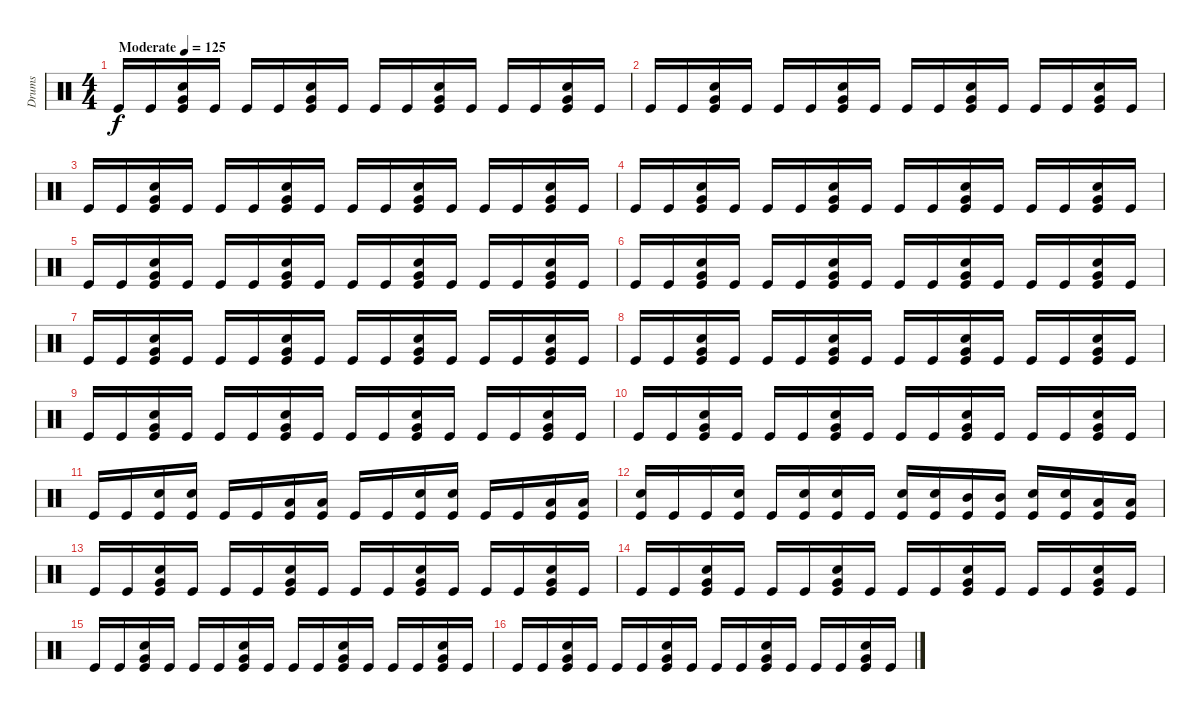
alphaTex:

\track ("Drums" "Drums") {instrument percussion}
\staff {score}
\articulation defaults
\ts (4 4)
\tempo (125 "Moderate")
\clef neutral
\ks c "Kick (hit)".16{dy f volume 7 balance 16} "Kick (hit)".16
("Very Low Tom (hit)" "Electric Snare (hit)" "Kick (hit)").16 "Kick (hit)".16 "Kick (hit)".16 "Kick (hit)".16 ("Very Low Tom (hit)" "Electric Snare (hit)" "Kick (hit)").16 "Kick (hit)".16 "Kick (hit)".16 "Kick (hit)".16 ("Very Low Tom (hit)" "Electric Snare (hit)" "Kick (hit)").16 "Kick (hit)".16 "Kick (hit)".16 "Kick (hit)".16 ("Very Low Tom (hit)" "Electric Snare (hit)" "Kick (hit)").16 "Kick (hit)".16 |
"Kick (hit)".16 "Kick (hit)".16 ("Very Low Tom (hit)" "Electric Snare (hit)" "Kick (hit)").16 "Kick (hit)".16 "Kick (hit)".16 "Kick (hit)".16 ("Very Low Tom (hit)" "Electric Snare (hit)" "Kick (hit)").16 "Kick (hit)".16 "Kick (hit)".16 "Kick (hit)".16 ("Very Low Tom (hit)" "Electric Snare (hit)" "Kick (hit)").16 "Kick (hit)".16 "Kick (hit)".16 "Kick (hit)".16 ("Very Low Tom (hit)" "Electric Snare (hit)" "Kick (hit)").16 "Kick (hit)".16 |
"Kick (hit)".16{volume 13 balance 8} "Kick (hit)".16 ("Very Low Tom (hit)" "Electric Snare (hit)" "Kick (hit)").16 "Kick (hit)".16 "Kick (hit)".16 "Kick (hit)".16 ("Very Low Tom (hit)" "Electric Snare (hit)" "Kick (hit)").16 "Kick (hit)".16 "Kick (hit)".16 "Kick (hit)".16 ("Very Low Tom (hit)" "Electric Snare (hit)" "Kick (hit)").16 "Kick (hit)".16 "Kick (hit)".16 "Kick (hit)".16 ("Very Low Tom (hit)" "Electric Snare (hit)" "Kick (hit)").16 "Kick (hit)".16 |
"Kick (hit)".16 "Kick (hit)".16 ("Very Low Tom (hit)" "Electric Snare (hit)" "Kick (hit)").16 "Kick (hit)".16 "Kick (hit)".16 "Kick (hit)".16 ("Very Low Tom (hit)" "Electric Snare (hit)" "Kick (hit)").16 "Kick (hit)".16 "Kick (hit)".16 "Kick (hit)".16 ("Very Low Tom (hit)" "Electric Snare (hit)" "Kick (hit)").16 "Kick (hit)".16 "Kick (hit)".16 "Kick (hit)".16 ("Very Low Tom (hit)" "Electric Snare (hit)" "Kick (hit)").16 "Kick (hit)".16 |
"Kick (hit)".16 "Kick (hit)".16 ("Very Low Tom (hit)" "Electric Snare (hit)" "Kick (hit)").16 "Kick (hit)".16 "Kick (hit)".16 "Kick (hit)".16 ("Very Low Tom (hit)" "Electric Snare (hit)" "Kick (hit)").16 "Kick (hit)".16 "Kick (hit)".16 "Kick (hit)".16 ("Very Low Tom (hit)" "Electric Snare (hit)" "Kick (hit)").16 "Kick (hit)".16 "Kick (hit)".16 "Kick (hit)".16 ("Very Low Tom (hit)" "Electric Snare (hit)" "Kick (hit)").16 "Kick (hit)".16 |
"Kick (hit)".16 "Kick (hit)".16 ("Very Low Tom (hit)" "Electric Snare (hit)" "Kick (hit)").16 "Kick (hit)".16 "Kick (hit)".16 "Kick (hit)".16 ("Very Low Tom (hit)" "Electric Snare (hit)" "Kick (hit)").16 "Kick (hit)".16 "Kick (hit)".16 "Kick (hit)".16 ("Very Low Tom (hit)" "Electric Snare (hit)" "Kick (hit)").16 "Kick (hit)".16 "Kick (hit)".16 "Kick (hit)".16 ("Very Low Tom (hit)" "Electric Snare (hit)" "Kick (hit)").16 "Kick (hit)".16 |
"Kick (hit)".16 "Kick (hit)".16 ("Very Low Tom (hit)" "Electric Snare (hit)" "Kick (hit)").16 "Kick (hit)".16 "Kick (hit)".16 "Kick (hit)".16 ("Very Low Tom (hit)" "Electric Snare (hit)" "Kick (hit)").16 "Kick (hit)".16 "Kick (hit)".16 "Kick (hit)".16 ("Very Low Tom (hit)" "Electric Snare (hit)" "Kick (hit)").16 "Kick (hit)".16 "Kick (hit)".16 "Kick (hit)".16 ("Very Low Tom (hit)" "Electric Snare (hit)" "Kick (hit)").16 "Kick (hit)".16 |
"Kick (hit)".16 "Kick (hit)".16 ("Very Low Tom (hit)" "Electric Snare (hit)" "Kick (hit)").16 "Kick (hit)".16 "Kick (hit)".16 "Kick (hit)".16 ("Very Low Tom (hit)" "Electric Snare (hit)" "Kick (hit)").16 "Kick (hit)".16 "Kick (hit)".16 "Kick (hit)".16 ("Very Low Tom (hit)" "Electric Snare (hit)" "Kick (hit)").16 "Kick (hit)".16 "Kick (hit)".16 "Kick (hit)".16 ("Very Low Tom (hit)" "Electric Snare (hit)" "Kick (hit)").16 "Kick (hit)".16 |
"Kick (hit)".16 "Kick (hit)".16 ("Very Low Tom (hit)" "Electric Snare (hit)" "Kick (hit)").16 "Kick (hit)".16 "Kick (hit)".16 "Kick (hit)".16 ("Very Low Tom (hit)" "Electric Snare (hit)" "Kick (hit)").16 "Kick (hit)".16 "Kick (hit)".16 "Kick (hit)".16 ("Very Low Tom (hit)" "Electric Snare (hit)" "Kick (hit)").16 "Kick (hit)".16 "Kick (hit)".16 "Kick (hit)".16 ("Very Low Tom (hit)" "Electric Snare (hit)" "Kick (hit)").16 "Kick (hit)".16 |
"Kick (hit)".16 "Kick (hit)".16 ("Very Low Tom (hit)" "Electric Snare (hit)" "Kick (hit)").16 "Kick (hit)".16 "Kick (hit)".16 "Kick (hit)".16 ("Very Low Tom (hit)" "Electric Snare (hit)" "Kick (hit)").16 "Kick (hit)".16 "Kick (hit)".16 "Kick (hit)".16 ("Very Low Tom (hit)" "Electric Snare (hit)" "Kick (hit)").16 "Kick (hit)".16 "Kick (hit)".16 "Kick (hit)".16 ("Very Low Tom (hit)" "Electric Snare (hit)" "Kick (hit)").16 "Kick (hit)".16 |
"Kick (hit)".16 "Kick (hit)".16 ("Electric Snare (hit)" "Kick (hit)").16 ("Electric Snare (hit)" "Kick (hit)").16 "Kick (hit)".16 "Kick (hit)".16 ("Low Tom (hit)" "Kick (hit)").16 ("Low Tom (hit)" "Kick (hit)").16 "Kick (hit)".16 "Kick (hit)".16 ("Electric Snare (hit)" "Kick (hit)").16 ("Electric Snare (hit)" "Kick (hit)").16 "Kick (hit)".16 "Kick (hit)".16 ("Low Tom (hit)" "Kick (hit)").16 ("Low Tom (hit)" "Kick (hit)").16 |
("Electric Snare (hit)" "Kick (hit)").16 "Kick (hit)".16 "Kick (hit)".16 ("Electric Snare (hit)" "Kick (hit)").16 "Kick (hit)".16 ("Electric Snare (hit)" "Kick (hit)").16 ("Electric Snare (hit)" "Kick (hit)").16 "Kick (hit)".16 ("Electric Snare (hit)" "Kick (hit)").16 ("Electric Snare (hit)" "Kick (hit)").16 ("Mid Tom (hit)" "Kick (hit)").16 ("Mid Tom (hit)" "Kick (hit)").16 ("Electric Snare (hit)" "Kick (hit)").16 ("Electric Snare (hit)" "Kick (hit)").16 ("Low Tom (hit)" "Kick (hit)").16 ("Low Tom (hit)" "Kick (hit)").16 |
"Kick (hit)".16 "Kick (hit)".16 ("Very Low Tom (hit)" "Electric Snare (hit)" "Kick (hit)").16 "Kick (hit)".16 "Kick (hit)".16 "Kick (hit)".16 ("Very Low Tom (hit)" "Electric Snare (hit)" "Kick (hit)").16 "Kick (hit)".16 "Kick (hit)".16 "Kick (hit)".16 ("Very Low Tom (hit)" "Electric Snare (hit)" "Kick (hit)").16 "Kick (hit)".16 "Kick (hit)".16 "Kick (hit)".16 ("Very Low Tom (hit)" "Electric Snare (hit)" "Kick (hit)").16 "Kick (hit)".16 |
"Kick (hit)".16 "Kick (hit)".16 ("Very Low Tom (hit)" "Electric Snare (hit)" "Kick (hit)").16 "Kick (hit)".16 "Kick (hit)".16 "Kick (hit)".16 ("Very Low Tom (hit)" "Electric Snare (hit)" "Kick (hit)").16 "Kick (hit)".16 "Kick (hit)".16 "Kick (hit)".16 ("Very Low Tom (hit)" "Electric Snare (hit)" "Kick (hit)").16 "Kick (hit)".16 "Kick (hit)".16 "Kick (hit)".16 ("Very Low Tom (hit)" "Electric Snare (hit)" "Kick (hit)").16 "Kick (hit)".16 |
"Kick (hit)".16 "Kick (hit)".16 ("Very Low Tom (hit)" "Electric Snare (hit)" "Kick (hit)").16 "Kick (hit)".16 "Kick (hit)".16 "Kick (hit)".16 ("Very Low Tom (hit)" "Electric Snare (hit)" "Kick (hit)").16 "Kick (hit)".16 "Kick (hit)".16 "Kick (hit)".16 ("Very Low Tom (hit)" "Electric Snare (hit)" "Kick (hit)").16 "Kick (hit)".16 "Kick (hit)".16 "Kick (hit)".16 ("Very Low Tom (hit)" "Electric Snare (hit)" "Kick (hit)").16 "Kick (hit)".16 |
"Kick (hit)".16 "Kick (hit)".16 ("Very Low Tom (hit)" "Electric Snare (hit)" "Kick (hit)").16 "Kick (hit)".16 "Kick (hit)".16 "Kick (hit)".16 ("Very Low Tom (hit)" "Electric Snare (hit)" "Kick (hit)").16 "Kick (hit)".16 "Kick (hit)".16 "Kick (hit)".16 ("Very Low Tom (hit)" "Electric Snare (hit)" "Kick (hit)").16 "Kick (hit)".16 "Kick (hit)".16 "Kick (hit)".16 ("Very Low Tom (hit)" "Electric Snare (hit)" "Kick (hit)").16 "Kick (hit)".16
